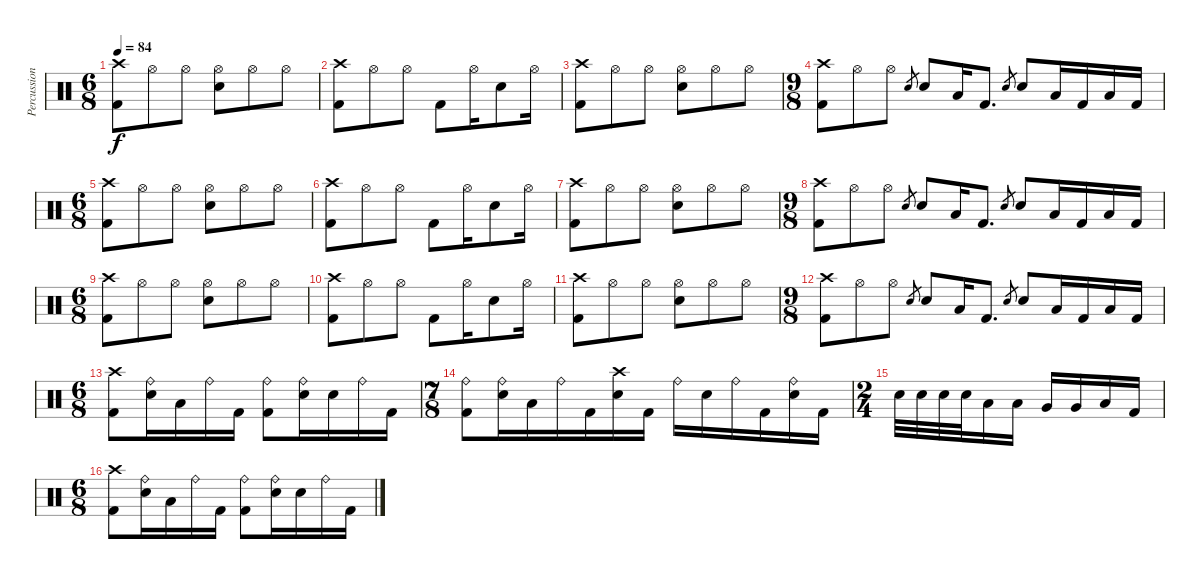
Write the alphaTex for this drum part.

\track ("Percussion" "Percussion") {instrument percussion}
\staff {score}
\articulation defaults
\ts (6 8)
\tempo 84
\clef neutral
\ks c
("Crash high (hit)" "Kick (hit) 2").8{dy f} "Hi-Hat (open)".8 "Hi-Hat (open)".8 ("Hi-Hat (open)" "Electric Snare (hit)").8 "Hi-Hat (open)".8 "Hi-Hat (open)".8 |
("Crash high (hit)" "Kick (hit) 2").8 "Hi-Hat (open)".8 "Hi-Hat (open)".8 "Kick (hit) 2".8 "Hi-Hat (open)".16 "Electric Snare (hit)".8 "Hi-Hat (open)".16 |
("Crash high (hit)" "Kick (hit) 2").8 "Hi-Hat (open)".8 "Hi-Hat (open)".8 ("Hi-Hat (open)" "Electric Snare (hit)").8 "Hi-Hat (open)".8 "Hi-Hat (open)".8 |
\ts (9 8)
("Crash high (hit)" "Kick (hit) 2").8 "Hi-Hat (open)".8 "Hi-Hat (open)".8 "Electric Snare (hit)".8{gr} "Electric Snare (hit)".8 "Low Tom (hit)".16 "Kick (hit) 2".8{d} "Electric Snare (hit)".8{gr} "Electric Snare (hit)".8 "Low Tom (hit)".16 "Kick (hit) 2".16 "Low Floor Tom (hit)".16 "Kick (hit) 2".16 |
\ts (6 8)
("Crash high (hit)" "Kick (hit) 2").8 "Hi-Hat (open)".8 "Hi-Hat (open)".8 ("Hi-Hat (open)" "Electric Snare (hit)").8 "Hi-Hat (open)".8 "Hi-Hat (open)".8 |
("Crash high (hit)" "Kick (hit) 2").8 "Hi-Hat (open)".8 "Hi-Hat (open)".8 "Kick (hit) 2".8 "Hi-Hat (open)".16 "Electric Snare (hit)".8 "Hi-Hat (open)".16 |
("Crash high (hit)" "Kick (hit) 2").8 "Hi-Hat (open)".8 "Hi-Hat (open)".8 ("Hi-Hat (open)" "Electric Snare (hit)").8 "Hi-Hat (open)".8 "Hi-Hat (open)".8 |
\ts (9 8)
("Crash high (hit)" "Kick (hit) 2").8 "Hi-Hat (open)".8 "Hi-Hat (open)".8 "Electric Snare (hit)".8{gr} "Electric Snare (hit)".8 "Low Tom (hit)".16 "Kick (hit) 2".8{d} "Electric Snare (hit)".8{gr} "Electric Snare (hit)".8 "Low Tom (hit)".16 "Kick (hit) 2".16 "Low Floor Tom (hit)".16 "Kick (hit) 2".16 |
\ts (6 8)
("Crash high (hit)" "Kick (hit) 2").8 "Hi-Hat (open)".8 "Hi-Hat (open)".8 ("Hi-Hat (open)" "Electric Snare (hit)").8 "Hi-Hat (open)".8 "Hi-Hat (open)".8 |
("Crash high (hit)" "Kick (hit) 2").8 "Hi-Hat (open)".8 "Hi-Hat (open)".8 "Kick (hit) 2".8 "Hi-Hat (open)".16 "Electric Snare (hit)".8 "Hi-Hat (open)".16 |
("Crash high (hit)" "Kick (hit) 2").8 "Hi-Hat (open)".8 "Hi-Hat (open)".8 ("Hi-Hat (open)" "Electric Snare (hit)").8 "Hi-Hat (open)".8 "Hi-Hat (open)".8 |
\ts (9 8)
("Crash high (hit)" "Kick (hit) 2").8 "Hi-Hat (open)".8 "Hi-Hat (open)".8 "Electric Snare (hit)".8{gr} "Electric Snare (hit)".8 "Low Tom (hit)".16 "Kick (hit) 2".8{d} "Electric Snare (hit)".8{gr} "Electric Snare (hit)".8 "Low Tom (hit)".16 "Kick (hit) 2".16 "Low Floor Tom (hit)".16 "Kick (hit) 2".16 |
\ts (6 8)
("Crash high (hit)" "Kick (hit) 2").8 ("Ride (bell)" "Electric Snare (hit)").16 "Low Tom (hit)".16 "Ride (bell)".16 "Kick (hit) 2".16 ("Ride (bell)" "Kick (hit) 2").8 ("Ride (bell)" "Electric Snare (hit)").16 "Electric Snare (hit)".16 "Ride (bell)".16 "Kick (hit) 2".16 |
\ts (7 8)
("Ride (bell)" "Kick (hit) 2").8 ("Ride (bell)" "Electric Snare (hit)").16 "Low Tom (hit)".16 "Ride (bell)".16 "Kick (hit) 2".16 ("Crash high (hit)" "Electric Snare (hit)").16 "Kick (hit) 2".16 "Ride (bell)".16 "Electric Snare (hit)".16 "Ride (bell)".16 "Kick (hit) 2".16 ("Ride (bell)" "Electric Snare (hit)").16 "Kick (hit) 2".16 |
\ts (2 4)
"Electric Snare (hit)".32 "Electric Snare (hit)".32 "Electric Snare (hit)".32 "Electric Snare (hit)".32 "Low Tom (hit)".16 "Low Tom (hit)".16 "Very Low Tom (hit)".16 "Very Low Tom (hit)".16 "Low Floor Tom (hit)".16 "Kick (hit) 2".16 |
\ts (6 8)
("Crash high (hit)" "Kick (hit) 2").8 ("Ride (bell)" "Electric Snare (hit)").16 "Low Tom (hit)".16 "Ride (bell)".16 "Kick (hit) 2".16 ("Ride (bell)" "Kick (hit) 2").8 ("Ride (bell)" "Electric Snare (hit)").16 "Electric Snare (hit)".16 "Ride (bell)".16 "Kick (hit) 2".16
